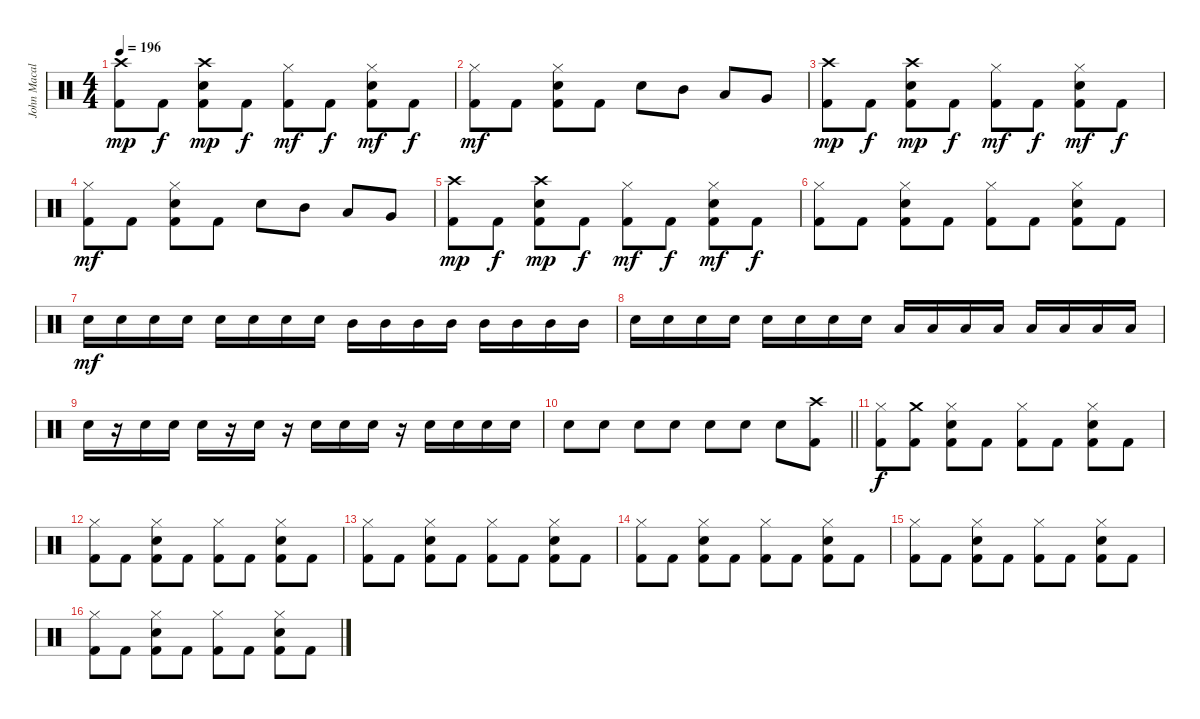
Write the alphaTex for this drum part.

\track ("John Macaluso" "John Macal") {instrument percussion}
\staff {score}
\articulation defaults
\ts (4 4)
\tempo 196
\clef neutral
\ks c
("Crash high (hit)" "Kick (hit) 2").8{dy mp} "Kick (hit) 2".8{dy f} ("Crash high (hit)" "Electric Snare (hit)" "Kick (hit) 2").8{dy mp} "Kick (hit) 2".8{dy f} ("Hi-Hat (closed)" "Kick (hit) 2").8{dy mf} "Kick (hit) 2".8{dy f} ("Electric Snare (hit)" "Hi-Hat (closed)" "Kick (hit) 2").8{dy mf} "Kick (hit) 2".8{dy f} |
("Hi-Hat (closed)" "Kick (hit) 2").8{dy mf} "Kick (hit) 2".8 ("Electric Snare (hit)" "Hi-Hat (closed)" "Kick (hit) 2").8 "Kick (hit) 2".8 "Electric Snare (hit)".8 "Mid Tom (hit)".8 "Low Tom (hit)".8 "Very Low Tom (hit)".8 |
("Crash high (hit)" "Kick (hit) 2").8{dy mp} "Kick (hit) 2".8{dy f} ("Crash high (hit)" "Electric Snare (hit)" "Kick (hit) 2").8{dy mp} "Kick (hit) 2".8{dy f} ("Hi-Hat (closed)" "Kick (hit) 2").8{dy mf} "Kick (hit) 2".8{dy f} ("Electric Snare (hit)" "Hi-Hat (closed)" "Kick (hit) 2").8{dy mf} "Kick (hit) 2".8{dy f} |
("Hi-Hat (closed)" "Kick (hit) 2").8{dy mf} "Kick (hit) 2".8 ("Electric Snare (hit)" "Hi-Hat (closed)" "Kick (hit) 2").8 "Kick (hit) 2".8 "Electric Snare (hit)".8 "Mid Tom (hit)".8 "Low Tom (hit)".8 "Very Low Tom (hit)".8 |
("Crash high (hit)" "Kick (hit) 2").8{dy mp} "Kick (hit) 2".8{dy f} ("Crash high (hit)" "Electric Snare (hit)" "Kick (hit) 2").8{dy mp} "Kick (hit) 2".8{dy f} ("Hi-Hat (closed)" "Kick (hit) 2").8{dy mf} "Kick (hit) 2".8{dy f} ("Electric Snare (hit)" "Hi-Hat (closed)" "Kick (hit) 2").8{dy mf} "Kick (hit) 2".8{dy f} |
("Hi-Hat (closed)" "Kick (hit) 2").8 "Kick (hit) 2".8 ("Electric Snare (hit)" "Hi-Hat (closed)" "Kick (hit) 2").8 "Kick (hit) 2".8 ("Hi-Hat (closed)" "Kick (hit) 2").8 "Kick (hit) 2".8 ("Electric Snare (hit)" "Hi-Hat (closed)" "Kick (hit) 2").8 "Kick (hit) 2".8 |
"Electric Snare (hit)".16{dy mf} "Electric Snare (hit)".16 "Electric Snare (hit)".16 "Electric Snare (hit)".16 "Electric Snare (hit)".16 "Electric Snare (hit)".16 "Electric Snare (hit)".16 "Electric Snare (hit)".16 "Mid Tom (hit)".16 "Mid Tom (hit)".16 "Mid Tom (hit)".16 "Mid Tom (hit)".16 "Mid Tom (hit)".16 "Mid Tom (hit)".16 "Mid Tom (hit)".16 "Mid Tom (hit)".16 |
"Electric Snare (hit)".16 "Electric Snare (hit)".16 "Electric Snare (hit)".16 "Electric Snare (hit)".16 "Electric Snare (hit)".16 "Electric Snare (hit)".16 "Electric Snare (hit)".16 "Electric Snare (hit)".16 "Low Tom (hit)".16 "Low Tom (hit)".16 "Low Tom (hit)".16 "Low Tom (hit)".16 "Low Tom (hit)".16 "Low Tom (hit)".16 "Low Tom (hit)".16 "Low Tom (hit)".16 |
"Electric Snare (hit)".16 r.16 "Electric Snare (hit)".16 "Electric Snare (hit)".16 "Electric Snare (hit)".16 r.16 "Electric Snare (hit)".16 r.16 "Electric Snare (hit)".16 "Electric Snare (hit)".16 "Electric Snare (hit)".16 r.16 "Electric Snare (hit)".16 "Electric Snare (hit)".16 "Electric Snare (hit)".16 "Electric Snare (hit)".16 |
\barLineRight lightlight "Electric Snare (hit)".8 "Electric Snare (hit)".8 "Electric Snare (hit)".8 "Electric Snare (hit)".8 "Electric Snare (hit)".8 "Electric Snare (hit)".8 "Electric Snare (hit)".8
("Crash high (hit)" "Kick (hit) 2").8 |
("Hi-Hat (closed)" "Kick (hit) 2").8{dy f} ("Crash medium (hit)" "Kick (hit) 2").8 ("Electric Snare (hit)" "Hi-Hat (closed)" "Kick (hit) 2").8 "Kick (hit) 2".8 ("Hi-Hat (closed)" "Kick (hit) 2").8 "Kick (hit) 2".8 ("Electric Snare (hit)" "Hi-Hat (closed)" "Kick (hit) 2").8 "Kick (hit) 2".8 |
("Hi-Hat (closed)" "Kick (hit) 2").8 "Kick (hit) 2".8 ("Electric Snare (hit)" "Hi-Hat (closed)" "Kick (hit) 2").8 "Kick (hit) 2".8 ("Hi-Hat (closed)" "Kick (hit) 2").8 "Kick (hit) 2".8 ("Electric Snare (hit)" "Hi-Hat (closed)" "Kick (hit) 2").8 "Kick (hit) 2".8 |
("Hi-Hat (closed)" "Kick (hit) 2").8 "Kick (hit) 2".8 ("Electric Snare (hit)" "Hi-Hat (closed)" "Kick (hit) 2").8 "Kick (hit) 2".8 ("Hi-Hat (closed)" "Kick (hit) 2").8 "Kick (hit) 2".8 ("Electric Snare (hit)" "Hi-Hat (closed)" "Kick (hit) 2").8 "Kick (hit) 2".8 |
("Hi-Hat (closed)" "Kick (hit) 2").8 "Kick (hit) 2".8 ("Electric Snare (hit)" "Hi-Hat (closed)" "Kick (hit) 2").8 "Kick (hit) 2".8 ("Hi-Hat (closed)" "Kick (hit) 2").8 "Kick (hit) 2".8 ("Electric Snare (hit)" "Hi-Hat (closed)" "Kick (hit) 2").8 "Kick (hit) 2".8 |
("Hi-Hat (closed)" "Kick (hit) 2").8 "Kick (hit) 2".8 ("Electric Snare (hit)" "Hi-Hat (closed)" "Kick (hit) 2").8 "Kick (hit) 2".8 ("Hi-Hat (closed)" "Kick (hit) 2").8 "Kick (hit) 2".8 ("Electric Snare (hit)" "Hi-Hat (closed)" "Kick (hit) 2").8 "Kick (hit) 2".8 |
("Hi-Hat (closed)" "Kick (hit) 2").8 "Kick (hit) 2".8 ("Electric Snare (hit)" "Hi-Hat (closed)" "Kick (hit) 2").8 "Kick (hit) 2".8 ("Hi-Hat (closed)" "Kick (hit) 2").8 "Kick (hit) 2".8 ("Electric Snare (hit)" "Hi-Hat (closed)" "Kick (hit) 2").8 "Kick (hit) 2".8
